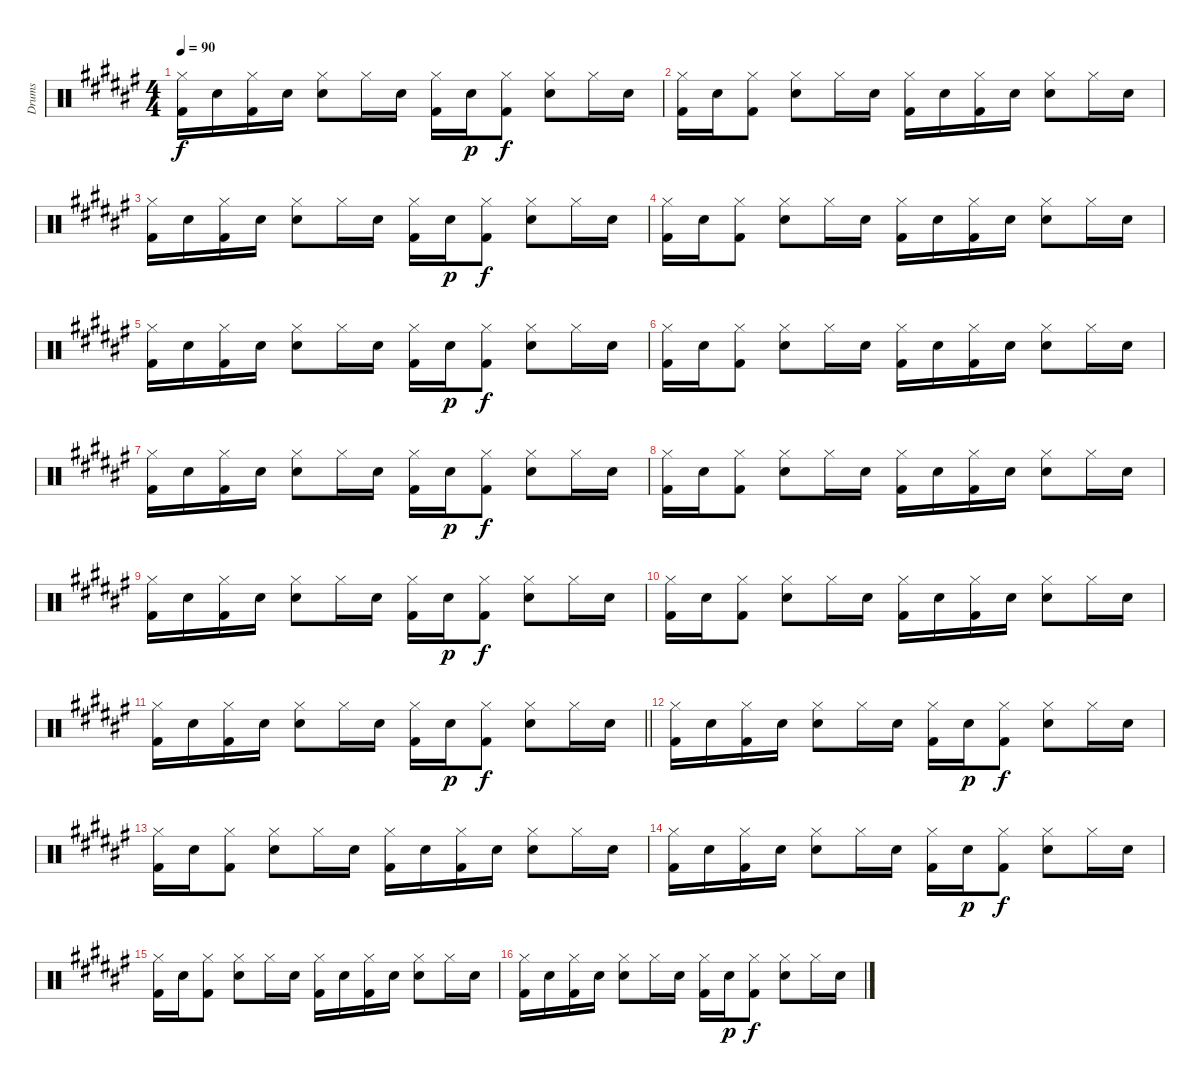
\track ("Drums" "Drums") {instrument percussion}
\staff {score}
\articulation defaults
\ts (4 4)
\tempo 90
\clef neutral
\ks f#
("Hi-Hat (closed)" "Kick (hit) 2").16{dy f} "Snare (hit) 2".16 ("Hi-Hat (closed)" "Kick (hit) 2").16 "Snare (hit) 2".16 ("Hi-Hat (closed)" "Snare (hit) 2").8 "Hi-Hat (closed)".16 "Snare (hit) 2".16 ("Hi-Hat (closed)" "Kick (hit) 2").16 "Snare (hit) 2".16{dy p} ("Hi-Hat (closed)" "Kick (hit) 2").8{dy f} ("Hi-Hat (closed)" "Snare (hit) 2").8 "Hi-Hat (closed)".16 "Snare (hit) 2".16 |
("Hi-Hat (closed)" "Kick (hit) 2").16 "Snare (hit) 2".16 ("Hi-Hat (closed)" "Kick (hit) 2").8 ("Hi-Hat (closed)" "Snare (hit) 2").8 "Hi-Hat (closed)".16 "Snare (hit) 2".16 ("Hi-Hat (closed)" "Kick (hit) 2").16 "Snare (hit) 2".16 ("Hi-Hat (closed)" "Kick (hit) 2").16 "Snare (hit) 2".16 ("Hi-Hat (closed)" "Snare (hit) 2").8 "Hi-Hat (closed)".16 "Snare (hit) 2".16 |
("Hi-Hat (closed)" "Kick (hit) 2").16 "Snare (hit) 2".16 ("Hi-Hat (closed)" "Kick (hit) 2").16 "Snare (hit) 2".16 ("Hi-Hat (closed)" "Snare (hit) 2").8 "Hi-Hat (closed)".16 "Snare (hit) 2".16 ("Hi-Hat (closed)" "Kick (hit) 2").16 "Snare (hit) 2".16{dy p} ("Hi-Hat (closed)" "Kick (hit) 2").8{dy f} ("Hi-Hat (closed)" "Snare (hit) 2").8 "Hi-Hat (closed)".16 "Snare (hit) 2".16 |
("Hi-Hat (closed)" "Kick (hit) 2").16 "Snare (hit) 2".16 ("Hi-Hat (closed)" "Kick (hit) 2").8 ("Hi-Hat (closed)" "Snare (hit) 2").8 "Hi-Hat (closed)".16 "Snare (hit) 2".16 ("Hi-Hat (closed)" "Kick (hit) 2").16 "Snare (hit) 2".16 ("Hi-Hat (closed)" "Kick (hit) 2").16 "Snare (hit) 2".16 ("Hi-Hat (closed)" "Snare (hit) 2").8 "Hi-Hat (closed)".16 "Snare (hit) 2".16 |
("Hi-Hat (closed)" "Kick (hit) 2").16 "Snare (hit) 2".16 ("Hi-Hat (closed)" "Kick (hit) 2").16 "Snare (hit) 2".16 ("Hi-Hat (closed)" "Snare (hit) 2").8 "Hi-Hat (closed)".16 "Snare (hit) 2".16 ("Hi-Hat (closed)" "Kick (hit) 2").16 "Snare (hit) 2".16{dy p} ("Hi-Hat (closed)" "Kick (hit) 2").8{dy f} ("Hi-Hat (closed)" "Snare (hit) 2").8 "Hi-Hat (closed)".16 "Snare (hit) 2".16 |
("Hi-Hat (closed)" "Kick (hit) 2").16 "Snare (hit) 2".16 ("Hi-Hat (closed)" "Kick (hit) 2").8 ("Hi-Hat (closed)" "Snare (hit) 2").8 "Hi-Hat (closed)".16 "Snare (hit) 2".16 ("Hi-Hat (closed)" "Kick (hit) 2").16 "Snare (hit) 2".16 ("Hi-Hat (closed)" "Kick (hit) 2").16 "Snare (hit) 2".16 ("Hi-Hat (closed)" "Snare (hit) 2").8 "Hi-Hat (closed)".16 "Snare (hit) 2".16 |
("Hi-Hat (closed)" "Kick (hit) 2").16 "Snare (hit) 2".16 ("Hi-Hat (closed)" "Kick (hit) 2").16 "Snare (hit) 2".16 ("Hi-Hat (closed)" "Snare (hit) 2").8 "Hi-Hat (closed)".16 "Snare (hit) 2".16 ("Hi-Hat (closed)" "Kick (hit) 2").16 "Snare (hit) 2".16{dy p} ("Hi-Hat (closed)" "Kick (hit) 2").8{dy f} ("Hi-Hat (closed)" "Snare (hit) 2").8 "Hi-Hat (closed)".16 "Snare (hit) 2".16 |
("Hi-Hat (closed)" "Kick (hit) 2").16 "Snare (hit) 2".16 ("Hi-Hat (closed)" "Kick (hit) 2").8 ("Hi-Hat (closed)" "Snare (hit) 2").8 "Hi-Hat (closed)".16 "Snare (hit) 2".16 ("Hi-Hat (closed)" "Kick (hit) 2").16 "Snare (hit) 2".16 ("Hi-Hat (closed)" "Kick (hit) 2").16 "Snare (hit) 2".16 ("Hi-Hat (closed)" "Snare (hit) 2").8 "Hi-Hat (closed)".16 "Snare (hit) 2".16 |
("Hi-Hat (closed)" "Kick (hit) 2").16 "Snare (hit) 2".16 ("Hi-Hat (closed)" "Kick (hit) 2").16 "Snare (hit) 2".16 ("Hi-Hat (closed)" "Snare (hit) 2").8 "Hi-Hat (closed)".16 "Snare (hit) 2".16 ("Hi-Hat (closed)" "Kick (hit) 2").16 "Snare (hit) 2".16{dy p} ("Hi-Hat (closed)" "Kick (hit) 2").8{dy f} ("Hi-Hat (closed)" "Snare (hit) 2").8 "Hi-Hat (closed)".16 "Snare (hit) 2".16 |
("Hi-Hat (closed)" "Kick (hit) 2").16 "Snare (hit) 2".16 ("Hi-Hat (closed)" "Kick (hit) 2").8 ("Hi-Hat (closed)" "Snare (hit) 2").8 "Hi-Hat (closed)".16 "Snare (hit) 2".16 ("Hi-Hat (closed)" "Kick (hit) 2").16 "Snare (hit) 2".16 ("Hi-Hat (closed)" "Kick (hit) 2").16 "Snare (hit) 2".16 ("Hi-Hat (closed)" "Snare (hit) 2").8 "Hi-Hat (closed)".16 "Snare (hit) 2".16 |
\barLineRight lightlight
("Hi-Hat (closed)" "Kick (hit) 2").16 "Snare (hit) 2".16 ("Hi-Hat (closed)" "Kick (hit) 2").16 "Snare (hit) 2".16 ("Hi-Hat (closed)" "Snare (hit) 2").8 "Hi-Hat (closed)".16 "Snare (hit) 2".16 ("Hi-Hat (closed)" "Kick (hit) 2").16 "Snare (hit) 2".16{dy p} ("Hi-Hat (closed)" "Kick (hit) 2").8{dy f} ("Hi-Hat (closed)" "Snare (hit) 2").8 "Hi-Hat (closed)".16 "Snare (hit) 2".16 |
("Hi-Hat (closed)" "Kick (hit) 2").16 "Snare (hit) 2".16 ("Hi-Hat (closed)" "Kick (hit) 2").16 "Snare (hit) 2".16 ("Hi-Hat (closed)" "Snare (hit) 2").8 "Hi-Hat (closed)".16 "Snare (hit) 2".16 ("Hi-Hat (closed)" "Kick (hit) 2").16 "Snare (hit) 2".16{dy p} ("Hi-Hat (closed)" "Kick (hit) 2").8{dy f} ("Hi-Hat (closed)" "Snare (hit) 2").8 "Hi-Hat (closed)".16 "Snare (hit) 2".16 |
("Hi-Hat (closed)" "Kick (hit) 2").16 "Snare (hit) 2".16 ("Hi-Hat (closed)" "Kick (hit) 2").8 ("Hi-Hat (closed)" "Snare (hit) 2").8 "Hi-Hat (closed)".16 "Snare (hit) 2".16 ("Hi-Hat (closed)" "Kick (hit) 2").16 "Snare (hit) 2".16 ("Hi-Hat (closed)" "Kick (hit) 2").16 "Snare (hit) 2".16 ("Hi-Hat (closed)" "Snare (hit) 2").8 "Hi-Hat (closed)".16 "Snare (hit) 2".16 |
("Hi-Hat (closed)" "Kick (hit) 2").16 "Snare (hit) 2".16 ("Hi-Hat (closed)" "Kick (hit) 2").16 "Snare (hit) 2".16 ("Hi-Hat (closed)" "Snare (hit) 2").8 "Hi-Hat (closed)".16 "Snare (hit) 2".16 ("Hi-Hat (closed)" "Kick (hit) 2").16 "Snare (hit) 2".16{dy p} ("Hi-Hat (closed)" "Kick (hit) 2").8{dy f} ("Hi-Hat (closed)" "Snare (hit) 2").8 "Hi-Hat (closed)".16 "Snare (hit) 2".16 |
("Hi-Hat (closed)" "Kick (hit) 2").16 "Snare (hit) 2".16 ("Hi-Hat (closed)" "Kick (hit) 2").8 ("Hi-Hat (closed)" "Snare (hit) 2").8 "Hi-Hat (closed)".16 "Snare (hit) 2".16 ("Hi-Hat (closed)" "Kick (hit) 2").16 "Snare (hit) 2".16 ("Hi-Hat (closed)" "Kick (hit) 2").16 "Snare (hit) 2".16 ("Hi-Hat (closed)" "Snare (hit) 2").8 "Hi-Hat (closed)".16 "Snare (hit) 2".16 |
("Hi-Hat (closed)" "Kick (hit) 2").16 "Snare (hit) 2".16 ("Hi-Hat (closed)" "Kick (hit) 2").16 "Snare (hit) 2".16 ("Hi-Hat (closed)" "Snare (hit) 2").8 "Hi-Hat (closed)".16 "Snare (hit) 2".16 ("Hi-Hat (closed)" "Kick (hit) 2").16 "Snare (hit) 2".16{dy p} ("Hi-Hat (closed)" "Kick (hit) 2").8{dy f} ("Hi-Hat (closed)" "Snare (hit) 2").8 "Hi-Hat (closed)".16 "Snare (hit) 2".16
